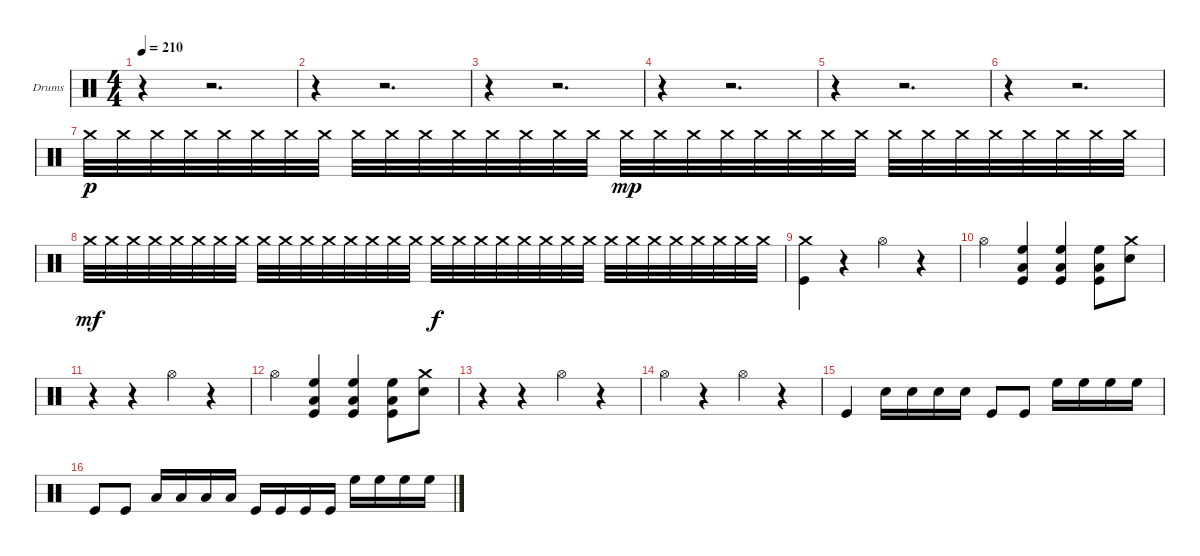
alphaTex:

\bracketExtendMode groupsimilarinstruments
\firstSystemTrackNameOrientation horizontal
\otherSystemsTrackNameOrientation horizontal
\track ("Drumkit" "Drums") {instrument percussion}
\staff {score}
\articulation defaults
\ts (4 4)
\tempo 210
\clef neutral
\ks c
r.4{dy f} r.2{d} |
r.4 r.2{d} |
r.4 r.2{d} |
r.4 r.2{d} |
r.4 r.2{d} |
r.4 r.2{d} |
"Crash medium (hit)".32{dy p} "Crash medium (hit)".32 "Crash medium (hit)".32 "Crash medium (hit)".32 "Crash medium (hit)".32 "Crash medium (hit)".32 "Crash medium (hit)".32 "Crash medium (hit)".32 "Crash medium (hit)".32 "Crash medium (hit)".32 "Crash medium (hit)".32 "Crash medium (hit)".32 "Crash medium (hit)".32 "Crash medium (hit)".32 "Crash medium (hit)".32 "Crash medium (hit)".32 "Crash medium (hit)".32{dy mp} "Crash medium (hit)".32 "Crash medium (hit)".32 "Crash medium (hit)".32 "Crash medium (hit)".32 "Crash medium (hit)".32 "Crash medium (hit)".32 "Crash medium (hit)".32 "Crash medium (hit)".32 "Crash medium (hit)".32 "Crash medium (hit)".32 "Crash medium (hit)".32 "Crash medium (hit)".32 "Crash medium (hit)".32 "Crash medium (hit)".32 "Crash medium (hit)".32 |
"Crash medium (hit)".32{dy mf} "Crash medium (hit)".32 "Crash medium (hit)".32 "Crash medium (hit)".32 "Crash medium (hit)".32 "Crash medium (hit)".32 "Crash medium (hit)".32 "Crash medium (hit)".32 "Crash medium (hit)".32 "Crash medium (hit)".32 "Crash medium (hit)".32 "Crash medium (hit)".32 "Crash medium (hit)".32 "Crash medium (hit)".32 "Crash medium (hit)".32 "Crash medium (hit)".32 "Crash medium (hit)".32{dy f} "Crash medium (hit)".32 "Crash medium (hit)".32 "Crash medium (hit)".32 "Crash medium (hit)".32 "Crash medium (hit)".32 "Crash medium (hit)".32 "Crash medium (hit)".32 "Crash medium (hit)".32 "Crash medium (hit)".32 "Crash medium (hit)".32 "Crash medium (hit)".32 "Crash medium (hit)".32 "Crash medium (hit)".32 "Crash medium (hit)".32 "Crash medium (hit)".32 |
("Crash medium (hit)" "Kick (hit)").4 r.4 "Hi-Hat (open)".4 r.4 |
"Hi-Hat (open)".4 ("Low Tom (hit)" "High Floor Tom (hit)" "Kick (hit)").4 ("Low Tom (hit)" "High Floor Tom (hit)" "Kick (hit)").4 ("Low Tom (hit)" "High Floor Tom (hit)" "Kick (hit)").8 ("Crash medium (hit)" "Snare (hit) 2").8 |
r.4 r.4 "Hi-Hat (open)".4 r.4 |
"Hi-Hat (open)".4 ("Low Tom (hit)" "High Floor Tom (hit)" "Kick (hit)").4 ("Low Tom (hit)" "High Floor Tom (hit)" "Kick (hit)").4 ("Low Tom (hit)" "High Floor Tom (hit)" "Kick (hit)").8 ("Crash medium (hit)" "Snare (hit) 2").8 |
r.4 r.4 "Hi-Hat (open)".4 r.4 |
"Hi-Hat (open)".4 r.4 "Hi-Hat (open)".4 r.4 |
"Kick (hit)".4 "Snare (hit) 2".16 "Snare (hit) 2".16 "Snare (hit) 2".16 "Snare (hit) 2".16 "Kick (hit)".8 "Kick (hit)".8 "High Floor Tom (hit)".16 "High Floor Tom (hit)".16 "High Floor Tom (hit)".16 "High Floor Tom (hit)".16 |
"Kick (hit)".8 "Kick (hit)".8 "Low Tom (hit)".16 "Low Tom (hit)".16 "Low Tom (hit)".16 "Low Tom (hit)".16 "Kick (hit)".16 "Kick (hit)".16 "Kick (hit)".16 "Kick (hit)".16 "High Floor Tom (hit)".16 "High Floor Tom (hit)".16 "High Floor Tom (hit)".16 "High Floor Tom (hit)".16
